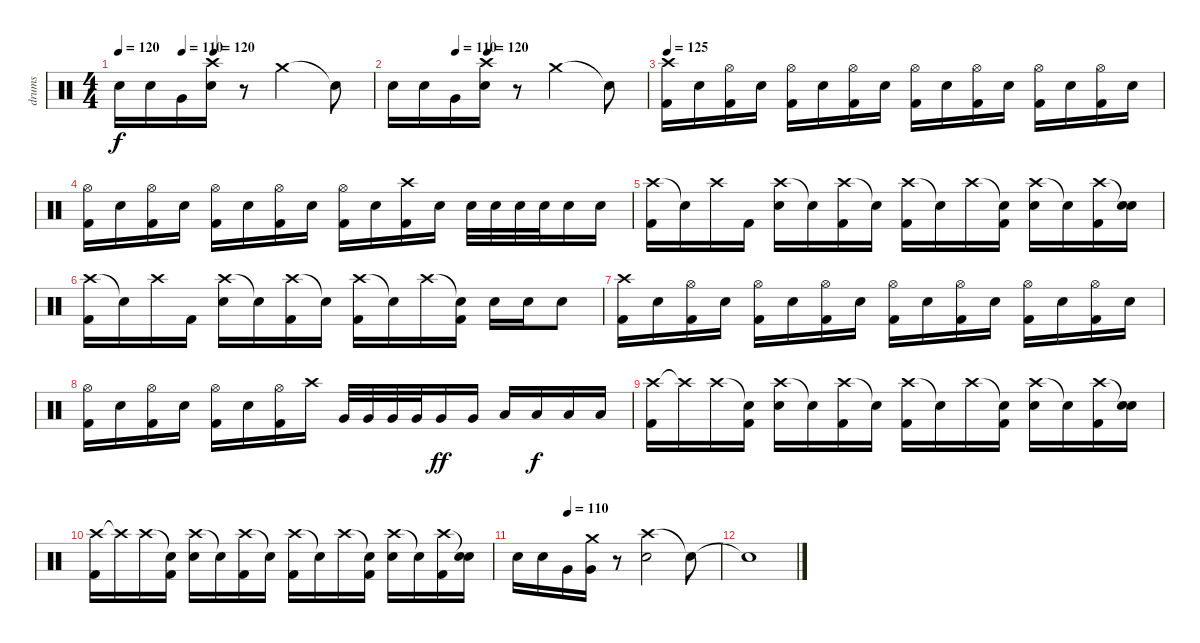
\track ("drums" "drums") {instrument percussion}
\staff {score}
\articulation defaults
\ts (4 4)
\tempo 120
\tempo (110 0.25)
\tempo (120 0.375)
\clef neutral
\ks c "Electric Snare (hit)".16{dy f} "Electric Snare (hit)".16 "Very Low Tom (hit)".16
("Crash high (hit)" "Electric Snare (hit)").16 r.8 "Crash medium (hit)".2 "Snare (hit)"{t}.8 |
\tempo (110 0.25)
\tempo (120 0.375)
"Electric Snare (hit)".16 "Electric Snare (hit)".16 "Very Low Tom (hit)".16 ("Crash high (hit)" "Electric Snare (hit)").16 r.8 "Crash medium (hit)".2 "Snare (hit)"{t}.8 |
\tempo 125
("Crash high (hit)" "Kick (hit) 2").16 "Electric Snare (hit)".16 ("Hi-Hat (open)" "Kick (hit) 2").16 "Electric Snare (hit)".16 ("Hi-Hat (open)" "Kick (hit) 2").16 "Electric Snare (hit)".16 ("Hi-Hat (open)" "Kick (hit) 2").16 "Electric Snare (hit)".16 ("Hi-Hat (open)" "Kick (hit) 2").16 "Electric Snare (hit)".16 ("Hi-Hat (open)" "Kick (hit) 2").16 "Electric Snare (hit)".16 ("Hi-Hat (open)" "Kick (hit) 2").16 "Electric Snare (hit)".16 ("Hi-Hat (open)" "Kick (hit) 2").16 "Electric Snare (hit)".16 |
("Hi-Hat (open)" "Kick (hit) 2").16 "Electric Snare (hit)".16 ("Hi-Hat (open)" "Kick (hit) 2").16 "Electric Snare (hit)".16 ("Hi-Hat (open)" "Kick (hit) 2").16 "Electric Snare (hit)".16 ("Hi-Hat (open)" "Kick (hit) 2").16 "Electric Snare (hit)".16 ("Hi-Hat (open)" "Kick (hit) 2").16 "Electric Snare (hit)".16 ("Crash high (hit)" "Kick (hit) 2").16 "Electric Snare (hit)".16 "Electric Snare (hit)".32 "Electric Snare (hit)".32 "Electric Snare (hit)".32 "Electric Snare (hit)".32 "Electric Snare (hit)".16 "Electric Snare (hit)".16 |
("Crash high (hit)" "Kick (hit) 2").16 "Snare (hit)"{t}.16 "Crash high (hit)".16 "Kick (hit) 2".16 ("Crash high (hit)" "Electric Snare (hit)").16 "Snare (hit)"{t}.16 ("Crash high (hit)" "Kick (hit) 2").16 "Snare (hit)"{t}.16 ("Crash high (hit)" "Kick (hit) 2").16 "Snare (hit)"{t}.16 "Crash high (hit)".16 ("Snare (hit)"{t} "Kick (hit) 2").16 ("Crash high (hit)" "Electric Snare (hit)").16 "Snare (hit)"{t}.16 ("Crash high (hit)" "Kick (hit) 2").16 ("Snare (hit)"{t} "Electric Snare (hit)").16 |
("Crash high (hit)" "Kick (hit) 2").16 "Snare (hit)"{t}.16 "Crash high (hit)".16 "Kick (hit) 2".16 ("Crash high (hit)" "Electric Snare (hit)").16 "Snare (hit)"{t}.16 ("Crash high (hit)" "Kick (hit) 2").16 "Snare (hit)"{t}.16 ("Crash high (hit)" "Kick (hit) 2").16 "Snare (hit)"{t}.16 "Crash high (hit)".16 ("Snare (hit)"{t} "Kick (hit) 2").16 "Electric Snare (hit)".16 "Electric Snare (hit)".16 "Electric Snare (hit)".8 |
("Crash high (hit)" "Kick (hit) 2").16 "Electric Snare (hit)".16 ("Hi-Hat (open)" "Kick (hit) 2").16 "Electric Snare (hit)".16 ("Hi-Hat (open)" "Kick (hit) 2").16 "Electric Snare (hit)".16 ("Hi-Hat (open)" "Kick (hit) 2").16 "Electric Snare (hit)".16 ("Hi-Hat (open)" "Kick (hit) 2").16 "Electric Snare (hit)".16 ("Hi-Hat (open)" "Kick (hit) 2").16 "Electric Snare (hit)".16 ("Hi-Hat (open)" "Kick (hit) 2").16 "Electric Snare (hit)".16 ("Hi-Hat (open)" "Kick (hit) 2").16 "Electric Snare (hit)".16 |
("Hi-Hat (open)" "Kick (hit) 2").16 "Electric Snare (hit)".16 ("Hi-Hat (open)" "Kick (hit) 2").16 "Electric Snare (hit)".16 ("Hi-Hat (open)" "Kick (hit) 2").16 "Electric Snare (hit)".16 ("Hi-Hat (open)" "Kick (hit) 2").16 "Crash high (hit)".16 "Very Low Tom (hit)".32 "Very Low Tom (hit)".32 "Very Low Tom (hit)".32 "Very Low Tom (hit)".32 "Very Low Tom (hit)".16{dy ff} "Very Low Tom (hit)".16 "Low Floor Tom (hit)".16 "Low Floor Tom (hit)".16{dy f} "Low Floor Tom (hit)".16 "Low Floor Tom (hit)".16 |
("Crash high (hit)" "Kick (hit) 2").16 "Crash high (hit)"{t}.16 "Crash high (hit)".16 ("Snare (hit)"{t} "Kick (hit) 2").16 ("Crash high (hit)" "Electric Snare (hit)").16 "Snare (hit)"{t}.16 ("Crash high (hit)" "Kick (hit) 2").16 "Snare (hit)"{t}.16 ("Crash high (hit)" "Kick (hit) 2").16 "Snare (hit)"{t}.16 "Crash high (hit)".16 ("Snare (hit)"{t} "Kick (hit) 2").16 ("Crash high (hit)" "Electric Snare (hit)").16 "Snare (hit)"{t}.16 ("Crash high (hit)" "Kick (hit) 2").16 ("Snare (hit)"{t} "Electric Snare (hit)").16 |
("Crash high (hit)" "Kick (hit) 2").16 "Crash high (hit)"{t}.16 "Crash high (hit)".16 ("Snare (hit)"{t} "Kick (hit) 2").16 ("Crash high (hit)" "Electric Snare (hit)").16 "Snare (hit)"{t}.16 ("Crash high (hit)" "Kick (hit) 2").16 "Snare (hit)"{t}.16 ("Crash high (hit)" "Kick (hit) 2").16 "Snare (hit)"{t}.16 "Crash high (hit)".16 ("Snare (hit)"{t} "Kick (hit) 2").16 ("Crash high (hit)" "Electric Snare (hit)").16 "Snare (hit)"{t}.16 ("Crash high (hit)" "Kick (hit) 2").16 ("Snare (hit)"{t} "Electric Snare (hit)").16 |
\tempo (110 0.25)
"Electric Snare (hit)".16 "Electric Snare (hit)".16 "Very Low Tom (hit)".16 ("Crash medium (hit)" "Very Low Tom (hit)").16 r.8 ("Crash high (hit)" "Electric Snare (hit)").2 "Snare (hit)"{t}.8 |
"Snare (hit)"{t}.1
